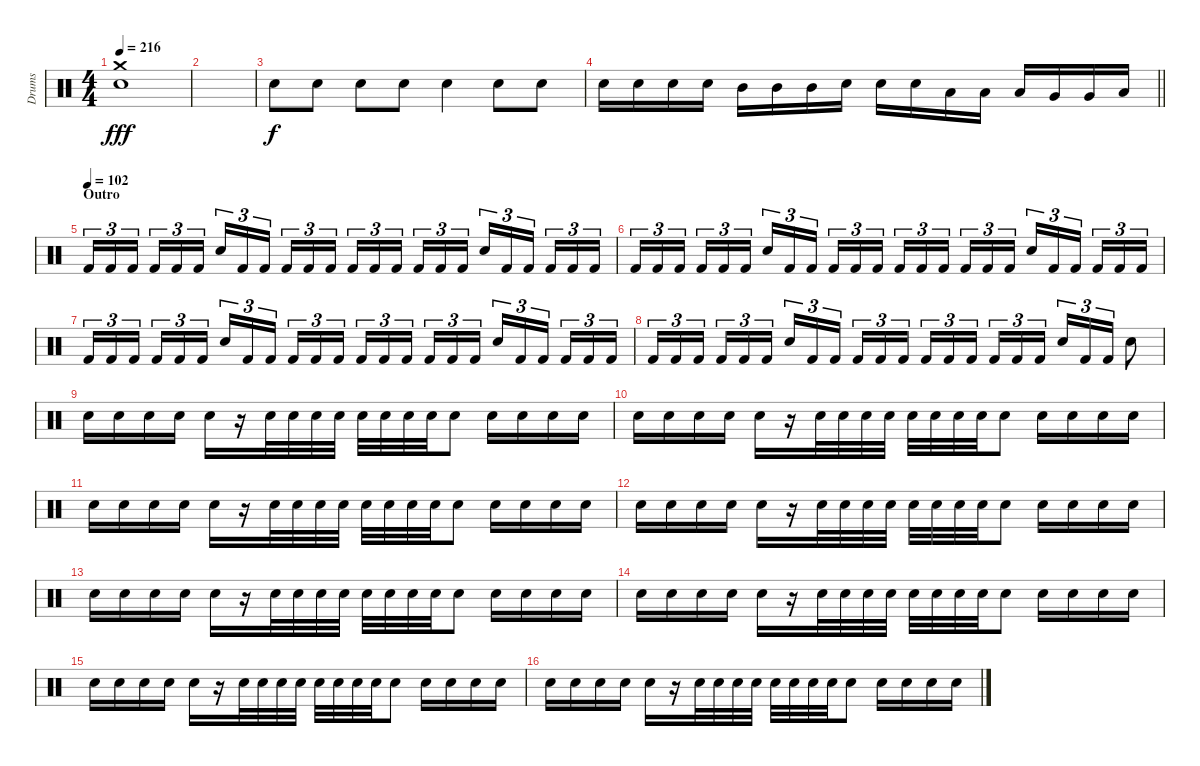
\track ("Drums" "Drums") {instrument percussion}
\staff {score}
\articulation defaults
\ts (4 4)
\tempo 216
\clef neutral
\ks c
("Crash medium (hit)" "Snare (hit) 2").1{dy fff} |
|
"Snare (hit) 2".8{dy f} "Snare (hit) 2".8 "Snare (hit) 2".8 "Snare (hit) 2".8 "Snare (hit) 2".4 "Snare (hit) 2".8 "Snare (hit) 2".8 |
\barLineRight lightlight "Snare (hit) 2".16 "Snare (hit) 2".16 "Snare (hit) 2".16 "Snare (hit) 2".16 "Mid Tom (hit)".16 "Mid Tom (hit)".16 "Mid Tom (hit)".16 "Snare (hit) 2".16 "Snare (hit) 2".16 "Snare (hit) 2".16 "Low Tom (hit)".16 "Low Tom (hit)".16 "Low Tom (hit)".16 "Very Low Tom (hit)".16 "Very Low Tom (hit)".16 "Low Floor Tom (hit)".16
|
\section ("" "Outro")
\tempo (102)
"Kick (hit) 2".16{tu (3 2)} "Kick (hit) 2".16{tu (3 2)} "Kick (hit) 2".16{tu (3 2) beam splitsecondary} "Kick (hit) 2".16{tu (3 2)} "Kick (hit) 2".16{tu (3 2)} "Kick (hit) 2".16{tu (3 2)} "Snare (hit) 2".16{tu (3 2)} "Kick (hit) 2".16{tu (3 2)} "Kick (hit) 2".16{tu (3 2) beam splitsecondary} "Kick (hit) 2".16{tu (3 2)} "Kick (hit) 2".16{tu (3 2)} "Kick (hit) 2".16{tu (3 2)} "Kick (hit) 2".16{tu (3 2)} "Kick (hit) 2".16{tu (3 2)} "Kick (hit) 2".16{tu (3 2) beam splitsecondary} "Kick (hit) 2".16{tu (3 2)} "Kick (hit) 2".16{tu (3 2)} "Kick (hit) 2".16{tu (3 2)} "Snare (hit) 2".16{tu (3 2)} "Kick (hit) 2".16{tu (3 2)} "Kick (hit) 2".16{tu (3 2) beam splitsecondary} "Kick (hit) 2".16{tu (3 2)} "Kick (hit) 2".16{tu (3 2)} "Kick (hit) 2".16{tu (3 2)} |
"Kick (hit) 2".16{tu (3 2)} "Kick (hit) 2".16{tu (3 2)} "Kick (hit) 2".16{tu (3 2) beam splitsecondary} "Kick (hit) 2".16{tu (3 2)} "Kick (hit) 2".16{tu (3 2)} "Kick (hit) 2".16{tu (3 2)} "Snare (hit) 2".16{tu (3 2)} "Kick (hit) 2".16{tu (3 2)} "Kick (hit) 2".16{tu (3 2) beam splitsecondary} "Kick (hit) 2".16{tu (3 2)} "Kick (hit) 2".16{tu (3 2)} "Kick (hit) 2".16{tu (3 2)} "Kick (hit) 2".16{tu (3 2)} "Kick (hit) 2".16{tu (3 2)} "Kick (hit) 2".16{tu (3 2) beam splitsecondary} "Kick (hit) 2".16{tu (3 2)} "Kick (hit) 2".16{tu (3 2)} "Kick (hit) 2".16{tu (3 2)} "Snare (hit) 2".16{tu (3 2)} "Kick (hit) 2".16{tu (3 2)} "Kick (hit) 2".16{tu (3 2) beam splitsecondary} "Kick (hit) 2".16{tu (3 2)} "Kick (hit) 2".16{tu (3 2)} "Kick (hit) 2".16{tu (3 2)} |
"Kick (hit) 2".16{tu (3 2)} "Kick (hit) 2".16{tu (3 2)} "Kick (hit) 2".16{tu (3 2) beam splitsecondary} "Kick (hit) 2".16{tu (3 2)} "Kick (hit) 2".16{tu (3 2)} "Kick (hit) 2".16{tu (3 2)} "Snare (hit) 2".16{tu (3 2)} "Kick (hit) 2".16{tu (3 2)} "Kick (hit) 2".16{tu (3 2) beam splitsecondary} "Kick (hit) 2".16{tu (3 2)} "Kick (hit) 2".16{tu (3 2)} "Kick (hit) 2".16{tu (3 2)} "Kick (hit) 2".16{tu (3 2)} "Kick (hit) 2".16{tu (3 2)} "Kick (hit) 2".16{tu (3 2) beam splitsecondary} "Kick (hit) 2".16{tu (3 2)} "Kick (hit) 2".16{tu (3 2)} "Kick (hit) 2".16{tu (3 2)} "Snare (hit) 2".16{tu (3 2)} "Kick (hit) 2".16{tu (3 2)} "Kick (hit) 2".16{tu (3 2) beam splitsecondary} "Kick (hit) 2".16{tu (3 2)} "Kick (hit) 2".16{tu (3 2)} "Kick (hit) 2".16{tu (3 2)} |
"Kick (hit) 2".16{tu (3 2)} "Kick (hit) 2".16{tu (3 2)} "Kick (hit) 2".16{tu (3 2) beam splitsecondary} "Kick (hit) 2".16{tu (3 2)} "Kick (hit) 2".16{tu (3 2)} "Kick (hit) 2".16{tu (3 2)} "Snare (hit) 2".16{tu (3 2)} "Kick (hit) 2".16{tu (3 2)} "Kick (hit) 2".16{tu (3 2) beam splitsecondary} "Kick (hit) 2".16{tu (3 2)} "Kick (hit) 2".16{tu (3 2)} "Kick (hit) 2".16{tu (3 2)} "Kick (hit) 2".16{tu (3 2)} "Kick (hit) 2".16{tu (3 2)} "Kick (hit) 2".16{tu (3 2) beam splitsecondary} "Kick (hit) 2".16{tu (3 2)} "Kick (hit) 2".16{tu (3 2)} "Kick (hit) 2".16{tu (3 2)} "Snare (hit) 2".16{tu (3 2)} "Kick (hit) 2".16{tu (3 2)} "Kick (hit) 2".16{tu (3 2)} "Snare (hit) 2".8 |
"Snare (hit) 2".16 "Snare (hit) 2".16 "Snare (hit) 2".16 "Snare (hit) 2".16 "Snare (hit) 2".16 r.16 "Snare (hit) 2".32 "Snare (hit) 2".32 "Snare (hit) 2".32 "Snare (hit) 2".32 "Snare (hit) 2".32 "Snare (hit) 2".32 "Snare (hit) 2".32 "Snare (hit) 2".32 "Snare (hit) 2".8 "Snare (hit) 2".16 "Snare (hit) 2".16 "Snare (hit) 2".16 "Snare (hit) 2".16 |
"Snare (hit) 2".16 "Snare (hit) 2".16 "Snare (hit) 2".16 "Snare (hit) 2".16 "Snare (hit) 2".16 r.16 "Snare (hit) 2".32 "Snare (hit) 2".32 "Snare (hit) 2".32 "Snare (hit) 2".32 "Snare (hit) 2".32 "Snare (hit) 2".32 "Snare (hit) 2".32 "Snare (hit) 2".32 "Snare (hit) 2".8 "Snare (hit) 2".16 "Snare (hit) 2".16 "Snare (hit) 2".16 "Snare (hit) 2".16 |
"Snare (hit) 2".16 "Snare (hit) 2".16 "Snare (hit) 2".16 "Snare (hit) 2".16 "Snare (hit) 2".16 r.16 "Snare (hit) 2".32 "Snare (hit) 2".32 "Snare (hit) 2".32 "Snare (hit) 2".32 "Snare (hit) 2".32 "Snare (hit) 2".32 "Snare (hit) 2".32 "Snare (hit) 2".32 "Snare (hit) 2".8 "Snare (hit) 2".16 "Snare (hit) 2".16 "Snare (hit) 2".16 "Snare (hit) 2".16 |
"Snare (hit) 2".16 "Snare (hit) 2".16 "Snare (hit) 2".16 "Snare (hit) 2".16 "Snare (hit) 2".16 r.16 "Snare (hit) 2".32 "Snare (hit) 2".32 "Snare (hit) 2".32 "Snare (hit) 2".32 "Snare (hit) 2".32 "Snare (hit) 2".32 "Snare (hit) 2".32 "Snare (hit) 2".32 "Snare (hit) 2".8 "Snare (hit) 2".16 "Snare (hit) 2".16 "Snare (hit) 2".16 "Snare (hit) 2".16 |
"Snare (hit) 2".16 "Snare (hit) 2".16 "Snare (hit) 2".16 "Snare (hit) 2".16 "Snare (hit) 2".16 r.16 "Snare (hit) 2".32 "Snare (hit) 2".32 "Snare (hit) 2".32 "Snare (hit) 2".32 "Snare (hit) 2".32 "Snare (hit) 2".32 "Snare (hit) 2".32 "Snare (hit) 2".32 "Snare (hit) 2".8 "Snare (hit) 2".16 "Snare (hit) 2".16 "Snare (hit) 2".16 "Snare (hit) 2".16 |
"Snare (hit) 2".16 "Snare (hit) 2".16 "Snare (hit) 2".16 "Snare (hit) 2".16 "Snare (hit) 2".16 r.16 "Snare (hit) 2".32 "Snare (hit) 2".32 "Snare (hit) 2".32 "Snare (hit) 2".32 "Snare (hit) 2".32 "Snare (hit) 2".32 "Snare (hit) 2".32 "Snare (hit) 2".32 "Snare (hit) 2".8 "Snare (hit) 2".16 "Snare (hit) 2".16 "Snare (hit) 2".16 "Snare (hit) 2".16 |
"Snare (hit) 2".16 "Snare (hit) 2".16 "Snare (hit) 2".16 "Snare (hit) 2".16 "Snare (hit) 2".16 r.16 "Snare (hit) 2".32 "Snare (hit) 2".32 "Snare (hit) 2".32 "Snare (hit) 2".32 "Snare (hit) 2".32 "Snare (hit) 2".32 "Snare (hit) 2".32 "Snare (hit) 2".32 "Snare (hit) 2".8 "Snare (hit) 2".16 "Snare (hit) 2".16 "Snare (hit) 2".16 "Snare (hit) 2".16 |
"Snare (hit) 2".16 "Snare (hit) 2".16 "Snare (hit) 2".16 "Snare (hit) 2".16 "Snare (hit) 2".16 r.16 "Snare (hit) 2".32 "Snare (hit) 2".32 "Snare (hit) 2".32 "Snare (hit) 2".32 "Snare (hit) 2".32 "Snare (hit) 2".32 "Snare (hit) 2".32 "Snare (hit) 2".32 "Snare (hit) 2".8 "Snare (hit) 2".16 "Snare (hit) 2".16 "Snare (hit) 2".16 "Snare (hit) 2".16
